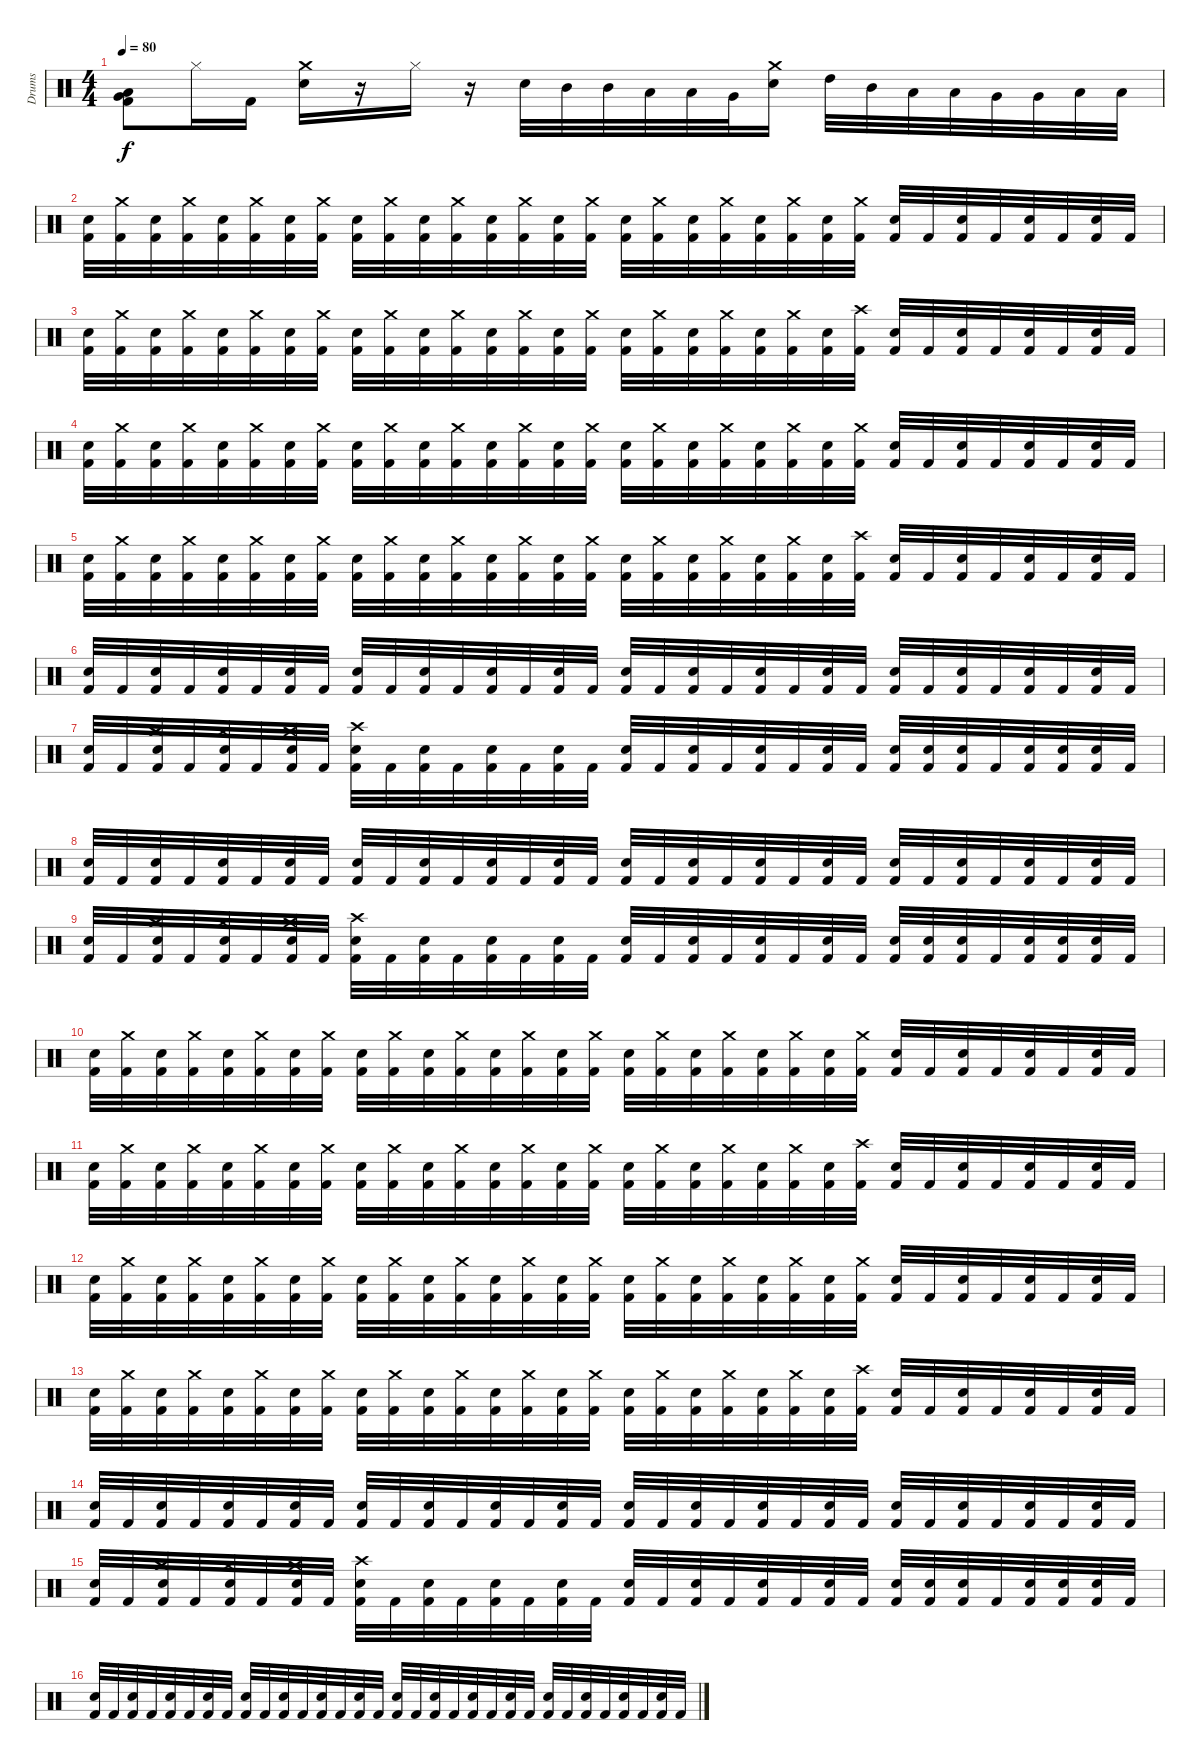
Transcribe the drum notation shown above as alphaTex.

\track ("Drums" "Drums") {instrument percussion}
\staff {score}
\articulation defaults
\ts (4 4)
\tempo 80
\clef neutral
\ks c
("Kick (hit) 2" "Low Floor Tom (hit)" "Very Low Tom (hit)").8{dy f} "Hi-Hat (closed)".16 "Kick (hit) 2".16 ("Crash medium (hit)" "Snare (hit) 2").16 r.16 "Hi-Hat (closed)".16 r.16 "Snare (hit) 2".32 "Mid Tom (hit)".32 "Mid Tom (hit)".32 "Low Tom (hit)".32 "Low Tom (hit)".32 "Very Low Tom (hit)".32 ("Crash medium (hit)" "Snare (hit) 2").16 "High Tom (hit)".32 "Mid Tom (hit)".32 "Low Tom (hit)".32 "Low Tom (hit)".32 "Very Low Tom (hit)".32 "Very Low Tom (hit)".32 "Low Floor Tom (hit)".32 "Low Floor Tom (hit)".32 |
("Kick (hit) 2" "Snare (hit) 2").32 ("Kick (hit) 2" "Crash medium (hit)").32 ("Kick (hit) 2" "Snare (hit) 2").32 ("Kick (hit) 2" "Crash medium (hit)").32 ("Kick (hit) 2" "Snare (hit) 2").32 ("Kick (hit) 2" "Crash medium (hit)").32 ("Kick (hit) 2" "Snare (hit) 2").32 ("Kick (hit) 2" "Crash medium (hit)").32 ("Kick (hit) 2" "Snare (hit) 2").32 ("Kick (hit) 2" "Crash medium (hit)").32 ("Kick (hit) 2" "Snare (hit) 2").32 ("Kick (hit) 2" "Crash medium (hit)").32 ("Kick (hit) 2" "Snare (hit) 2").32 ("Kick (hit) 2" "Crash medium (hit)").32 ("Kick (hit) 2" "Snare (hit) 2").32 ("Kick (hit) 2" "Crash medium (hit)").32 ("Kick (hit) 2" "Snare (hit) 2").32 ("Kick (hit) 2" "Crash medium (hit)").32 ("Kick (hit) 2" "Snare (hit) 2").32 ("Kick (hit) 2" "Crash medium (hit)").32 ("Kick (hit) 2" "Snare (hit) 2").32 ("Kick (hit) 2" "Crash medium (hit)").32 ("Kick (hit) 2" "Snare (hit) 2").32 ("Kick (hit) 2" "Crash medium (hit)").32 ("Kick (hit) 2" "Snare (hit) 2").32 "Kick (hit) 2".32 ("Kick (hit) 2" "Snare (hit) 2").32 "Kick (hit) 2".32 ("Kick (hit) 2" "Snare (hit) 2").32 "Kick (hit) 2".32 ("Kick (hit) 2" "Snare (hit) 2").32 "Kick (hit) 2".32 |
("Kick (hit) 2" "Snare (hit) 2").32 ("Kick (hit) 2" "Crash medium (hit)").32 ("Kick (hit) 2" "Snare (hit) 2").32 ("Kick (hit) 2" "Crash medium (hit)").32 ("Kick (hit) 2" "Snare (hit) 2").32 ("Kick (hit) 2" "Crash medium (hit)").32 ("Kick (hit) 2" "Snare (hit) 2").32 ("Kick (hit) 2" "Crash medium (hit)").32 ("Kick (hit) 2" "Snare (hit) 2").32 ("Kick (hit) 2" "Crash medium (hit)").32 ("Kick (hit) 2" "Snare (hit) 2").32 ("Kick (hit) 2" "Crash medium (hit)").32 ("Kick (hit) 2" "Snare (hit) 2").32 ("Kick (hit) 2" "Crash medium (hit)").32 ("Kick (hit) 2" "Snare (hit) 2").32 ("Kick (hit) 2" "Crash medium (hit)").32 ("Kick (hit) 2" "Snare (hit) 2").32 ("Kick (hit) 2" "Crash medium (hit)").32 ("Kick (hit) 2" "Snare (hit) 2").32 ("Kick (hit) 2" "Crash medium (hit)").32 ("Kick (hit) 2" "Snare (hit) 2").32 ("Kick (hit) 2" "Crash medium (hit)").32 ("Kick (hit) 2" "Snare (hit) 2").32 ("Kick (hit) 2" "Crash high (hit)").32 ("Kick (hit) 2" "Snare (hit) 2").32 "Kick (hit) 2".32 ("Kick (hit) 2" "Snare (hit) 2").32 "Kick (hit) 2".32 ("Kick (hit) 2" "Snare (hit) 2").32 "Kick (hit) 2".32 ("Kick (hit) 2" "Snare (hit) 2").32 "Kick (hit) 2".32 |
("Kick (hit) 2" "Snare (hit) 2").32 ("Kick (hit) 2" "Crash medium (hit)").32 ("Kick (hit) 2" "Snare (hit) 2").32 ("Kick (hit) 2" "Crash medium (hit)").32 ("Kick (hit) 2" "Snare (hit) 2").32 ("Kick (hit) 2" "Crash medium (hit)").32 ("Kick (hit) 2" "Snare (hit) 2").32 ("Kick (hit) 2" "Crash medium (hit)").32 ("Kick (hit) 2" "Snare (hit) 2").32 ("Kick (hit) 2" "Crash medium (hit)").32 ("Kick (hit) 2" "Snare (hit) 2").32 ("Kick (hit) 2" "Crash medium (hit)").32 ("Kick (hit) 2" "Snare (hit) 2").32 ("Kick (hit) 2" "Crash medium (hit)").32 ("Kick (hit) 2" "Snare (hit) 2").32 ("Kick (hit) 2" "Crash medium (hit)").32 ("Kick (hit) 2" "Snare (hit) 2").32 ("Kick (hit) 2" "Crash medium (hit)").32 ("Kick (hit) 2" "Snare (hit) 2").32 ("Kick (hit) 2" "Crash medium (hit)").32 ("Kick (hit) 2" "Snare (hit) 2").32 ("Kick (hit) 2" "Crash medium (hit)").32 ("Kick (hit) 2" "Snare (hit) 2").32 ("Kick (hit) 2" "Crash medium (hit)").32 ("Kick (hit) 2" "Snare (hit) 2").32 "Kick (hit) 2".32 ("Kick (hit) 2" "Snare (hit) 2").32 "Kick (hit) 2".32 ("Kick (hit) 2" "Snare (hit) 2").32 "Kick (hit) 2".32 ("Kick (hit) 2" "Snare (hit) 2").32 "Kick (hit) 2".32 |
("Kick (hit) 2" "Snare (hit) 2").32 ("Kick (hit) 2" "Crash medium (hit)").32 ("Kick (hit) 2" "Snare (hit) 2").32 ("Kick (hit) 2" "Crash medium (hit)").32 ("Kick (hit) 2" "Snare (hit) 2").32 ("Kick (hit) 2" "Crash medium (hit)").32 ("Kick (hit) 2" "Snare (hit) 2").32 ("Kick (hit) 2" "Crash medium (hit)").32 ("Kick (hit) 2" "Snare (hit) 2").32 ("Kick (hit) 2" "Crash medium (hit)").32 ("Kick (hit) 2" "Snare (hit) 2").32 ("Kick (hit) 2" "Crash medium (hit)").32 ("Kick (hit) 2" "Snare (hit) 2").32 ("Kick (hit) 2" "Crash medium (hit)").32 ("Kick (hit) 2" "Snare (hit) 2").32 ("Kick (hit) 2" "Crash medium (hit)").32 ("Kick (hit) 2" "Snare (hit) 2").32 ("Kick (hit) 2" "Crash medium (hit)").32 ("Kick (hit) 2" "Snare (hit) 2").32 ("Kick (hit) 2" "Crash medium (hit)").32 ("Kick (hit) 2" "Snare (hit) 2").32 ("Kick (hit) 2" "Crash medium (hit)").32 ("Kick (hit) 2" "Snare (hit) 2").32 ("Kick (hit) 2" "Crash high (hit)").32 ("Kick (hit) 2" "Snare (hit) 2").32 "Kick (hit) 2".32 ("Kick (hit) 2" "Snare (hit) 2").32 "Kick (hit) 2".32 ("Kick (hit) 2" "Snare (hit) 2").32 "Kick (hit) 2".32 ("Kick (hit) 2" "Snare (hit) 2").32 "Kick (hit) 2".32 |
("Kick (hit) 2" "Snare (hit) 2").32 "Kick (hit) 2".32 ("Kick (hit) 2" "Snare (hit) 2").32 "Kick (hit) 2".32 ("Kick (hit) 2" "Snare (hit) 2").32 "Kick (hit) 2".32 ("Kick (hit) 2" "Snare (hit) 2").32 "Kick (hit) 2".32 ("Kick (hit) 2" "Snare (hit) 2").32 "Kick (hit) 2".32 ("Kick (hit) 2" "Snare (hit) 2").32 "Kick (hit) 2".32 ("Kick (hit) 2" "Snare (hit) 2").32 "Kick (hit) 2".32 ("Kick (hit) 2" "Snare (hit) 2").32 "Kick (hit) 2".32 ("Kick (hit) 2" "Snare (hit) 2").32 "Kick (hit) 2".32 ("Kick (hit) 2" "Snare (hit) 2").32 "Kick (hit) 2".32 ("Kick (hit) 2" "Snare (hit) 2").32 "Kick (hit) 2".32 ("Kick (hit) 2" "Snare (hit) 2").32 "Kick (hit) 2".32 ("Kick (hit) 2" "Snare (hit) 2").32 "Kick (hit) 2".32 ("Kick (hit) 2" "Snare (hit) 2").32 "Kick (hit) 2".32 ("Kick (hit) 2" "Snare (hit) 2").32 "Kick (hit) 2".32 ("Kick (hit) 2" "Snare (hit) 2").32 "Kick (hit) 2".32 |
("Kick (hit) 2" "Snare (hit) 2").32 "Kick (hit) 2".32 ("Kick (hit) 2" "Snare (hit) 2" "Crash medium (hit)").32 "Kick (hit) 2".32 ("Kick (hit) 2" "Snare (hit) 2" "Crash medium (hit)").32 "Kick (hit) 2".32 ("Kick (hit) 2" "Snare (hit) 2" "Crash medium (hit)").32 "Kick (hit) 2".32 ("Kick (hit) 2" "Snare (hit) 2" "Crash high (hit)").32 "Kick (hit) 2".32 ("Kick (hit) 2" "Snare (hit) 2").32 "Kick (hit) 2".32 ("Kick (hit) 2" "Snare (hit) 2").32 "Kick (hit) 2".32 ("Kick (hit) 2" "Snare (hit) 2").32 "Kick (hit) 2".32 ("Kick (hit) 2" "Snare (hit) 2").32 "Kick (hit) 2".32 ("Kick (hit) 2" "Snare (hit) 2").32 "Kick (hit) 2".32 ("Kick (hit) 2" "Snare (hit) 2").32 "Kick (hit) 2".32 ("Kick (hit) 2" "Snare (hit) 2").32 "Kick (hit) 2".32 ("Kick (hit) 2" "Snare (hit) 2").32 ("Kick (hit) 2" "Snare (hit) 2").32 ("Kick (hit) 2" "Snare (hit) 2").32 "Kick (hit) 2".32 ("Kick (hit) 2" "Snare (hit) 2").32 ("Kick (hit) 2" "Snare (hit) 2").32 ("Kick (hit) 2" "Snare (hit) 2").32 "Kick (hit) 2".32 |
("Kick (hit) 2" "Snare (hit) 2").32 "Kick (hit) 2".32 ("Kick (hit) 2" "Snare (hit) 2").32 "Kick (hit) 2".32 ("Kick (hit) 2" "Snare (hit) 2").32 "Kick (hit) 2".32 ("Kick (hit) 2" "Snare (hit) 2").32 "Kick (hit) 2".32 ("Kick (hit) 2" "Snare (hit) 2").32 "Kick (hit) 2".32 ("Kick (hit) 2" "Snare (hit) 2").32 "Kick (hit) 2".32 ("Kick (hit) 2" "Snare (hit) 2").32 "Kick (hit) 2".32 ("Kick (hit) 2" "Snare (hit) 2").32 "Kick (hit) 2".32 ("Kick (hit) 2" "Snare (hit) 2").32 "Kick (hit) 2".32 ("Kick (hit) 2" "Snare (hit) 2").32 "Kick (hit) 2".32 ("Kick (hit) 2" "Snare (hit) 2").32 "Kick (hit) 2".32 ("Kick (hit) 2" "Snare (hit) 2").32 "Kick (hit) 2".32 ("Kick (hit) 2" "Snare (hit) 2").32 "Kick (hit) 2".32 ("Kick (hit) 2" "Snare (hit) 2").32 "Kick (hit) 2".32 ("Kick (hit) 2" "Snare (hit) 2").32 "Kick (hit) 2".32 ("Kick (hit) 2" "Snare (hit) 2").32 "Kick (hit) 2".32 |
("Kick (hit) 2" "Snare (hit) 2").32 "Kick (hit) 2".32 ("Kick (hit) 2" "Snare (hit) 2" "Crash medium (hit)").32 "Kick (hit) 2".32 ("Kick (hit) 2" "Snare (hit) 2" "Crash medium (hit)").32 "Kick (hit) 2".32 ("Kick (hit) 2" "Snare (hit) 2" "Crash medium (hit)").32 "Kick (hit) 2".32 ("Kick (hit) 2" "Snare (hit) 2" "Crash high (hit)").32 "Kick (hit) 2".32 ("Kick (hit) 2" "Snare (hit) 2").32 "Kick (hit) 2".32 ("Kick (hit) 2" "Snare (hit) 2").32 "Kick (hit) 2".32 ("Kick (hit) 2" "Snare (hit) 2").32 "Kick (hit) 2".32 ("Kick (hit) 2" "Snare (hit) 2").32 "Kick (hit) 2".32 ("Kick (hit) 2" "Snare (hit) 2").32 "Kick (hit) 2".32 ("Kick (hit) 2" "Snare (hit) 2").32 "Kick (hit) 2".32 ("Kick (hit) 2" "Snare (hit) 2").32 "Kick (hit) 2".32 ("Kick (hit) 2" "Snare (hit) 2").32 ("Kick (hit) 2" "Snare (hit) 2").32 ("Kick (hit) 2" "Snare (hit) 2").32 "Kick (hit) 2".32 ("Kick (hit) 2" "Snare (hit) 2").32 ("Kick (hit) 2" "Snare (hit) 2").32 ("Kick (hit) 2" "Snare (hit) 2").32 "Kick (hit) 2".32 |
("Kick (hit) 2" "Snare (hit) 2").32 ("Kick (hit) 2" "Crash medium (hit)").32 ("Kick (hit) 2" "Snare (hit) 2").32 ("Kick (hit) 2" "Crash medium (hit)").32 ("Kick (hit) 2" "Snare (hit) 2").32 ("Kick (hit) 2" "Crash medium (hit)").32 ("Kick (hit) 2" "Snare (hit) 2").32 ("Kick (hit) 2" "Crash medium (hit)").32 ("Kick (hit) 2" "Snare (hit) 2").32 ("Kick (hit) 2" "Crash medium (hit)").32 ("Kick (hit) 2" "Snare (hit) 2").32 ("Kick (hit) 2" "Crash medium (hit)").32 ("Kick (hit) 2" "Snare (hit) 2").32 ("Kick (hit) 2" "Crash medium (hit)").32 ("Kick (hit) 2" "Snare (hit) 2").32 ("Kick (hit) 2" "Crash medium (hit)").32 ("Kick (hit) 2" "Snare (hit) 2").32 ("Kick (hit) 2" "Crash medium (hit)").32 ("Kick (hit) 2" "Snare (hit) 2").32 ("Kick (hit) 2" "Crash medium (hit)").32 ("Kick (hit) 2" "Snare (hit) 2").32 ("Kick (hit) 2" "Crash medium (hit)").32 ("Kick (hit) 2" "Snare (hit) 2").32 ("Kick (hit) 2" "Crash medium (hit)").32 ("Kick (hit) 2" "Snare (hit) 2").32 "Kick (hit) 2".32 ("Kick (hit) 2" "Snare (hit) 2").32 "Kick (hit) 2".32 ("Kick (hit) 2" "Snare (hit) 2").32 "Kick (hit) 2".32 ("Kick (hit) 2" "Snare (hit) 2").32 "Kick (hit) 2".32 |
("Kick (hit) 2" "Snare (hit) 2").32 ("Kick (hit) 2" "Crash medium (hit)").32 ("Kick (hit) 2" "Snare (hit) 2").32 ("Kick (hit) 2" "Crash medium (hit)").32 ("Kick (hit) 2" "Snare (hit) 2").32 ("Kick (hit) 2" "Crash medium (hit)").32 ("Kick (hit) 2" "Snare (hit) 2").32 ("Kick (hit) 2" "Crash medium (hit)").32 ("Kick (hit) 2" "Snare (hit) 2").32 ("Kick (hit) 2" "Crash medium (hit)").32 ("Kick (hit) 2" "Snare (hit) 2").32 ("Kick (hit) 2" "Crash medium (hit)").32 ("Kick (hit) 2" "Snare (hit) 2").32 ("Kick (hit) 2" "Crash medium (hit)").32 ("Kick (hit) 2" "Snare (hit) 2").32 ("Kick (hit) 2" "Crash medium (hit)").32 ("Kick (hit) 2" "Snare (hit) 2").32 ("Kick (hit) 2" "Crash medium (hit)").32 ("Kick (hit) 2" "Snare (hit) 2").32 ("Kick (hit) 2" "Crash medium (hit)").32 ("Kick (hit) 2" "Snare (hit) 2").32 ("Kick (hit) 2" "Crash medium (hit)").32 ("Kick (hit) 2" "Snare (hit) 2").32 ("Kick (hit) 2" "Crash high (hit)").32 ("Kick (hit) 2" "Snare (hit) 2").32 "Kick (hit) 2".32 ("Kick (hit) 2" "Snare (hit) 2").32 "Kick (hit) 2".32 ("Kick (hit) 2" "Snare (hit) 2").32 "Kick (hit) 2".32 ("Kick (hit) 2" "Snare (hit) 2").32 "Kick (hit) 2".32 |
("Kick (hit) 2" "Snare (hit) 2").32 ("Kick (hit) 2" "Crash medium (hit)").32 ("Kick (hit) 2" "Snare (hit) 2").32 ("Kick (hit) 2" "Crash medium (hit)").32 ("Kick (hit) 2" "Snare (hit) 2").32 ("Kick (hit) 2" "Crash medium (hit)").32 ("Kick (hit) 2" "Snare (hit) 2").32 ("Kick (hit) 2" "Crash medium (hit)").32 ("Kick (hit) 2" "Snare (hit) 2").32 ("Kick (hit) 2" "Crash medium (hit)").32 ("Kick (hit) 2" "Snare (hit) 2").32 ("Kick (hit) 2" "Crash medium (hit)").32 ("Kick (hit) 2" "Snare (hit) 2").32 ("Kick (hit) 2" "Crash medium (hit)").32 ("Kick (hit) 2" "Snare (hit) 2").32 ("Kick (hit) 2" "Crash medium (hit)").32 ("Kick (hit) 2" "Snare (hit) 2").32 ("Kick (hit) 2" "Crash medium (hit)").32 ("Kick (hit) 2" "Snare (hit) 2").32 ("Kick (hit) 2" "Crash medium (hit)").32 ("Kick (hit) 2" "Snare (hit) 2").32 ("Kick (hit) 2" "Crash medium (hit)").32 ("Kick (hit) 2" "Snare (hit) 2").32 ("Kick (hit) 2" "Crash medium (hit)").32 ("Kick (hit) 2" "Snare (hit) 2").32 "Kick (hit) 2".32 ("Kick (hit) 2" "Snare (hit) 2").32 "Kick (hit) 2".32 ("Kick (hit) 2" "Snare (hit) 2").32 "Kick (hit) 2".32 ("Kick (hit) 2" "Snare (hit) 2").32 "Kick (hit) 2".32 |
("Kick (hit) 2" "Snare (hit) 2").32 ("Kick (hit) 2" "Crash medium (hit)").32 ("Kick (hit) 2" "Snare (hit) 2").32 ("Kick (hit) 2" "Crash medium (hit)").32 ("Kick (hit) 2" "Snare (hit) 2").32 ("Kick (hit) 2" "Crash medium (hit)").32 ("Kick (hit) 2" "Snare (hit) 2").32 ("Kick (hit) 2" "Crash medium (hit)").32 ("Kick (hit) 2" "Snare (hit) 2").32 ("Kick (hit) 2" "Crash medium (hit)").32 ("Kick (hit) 2" "Snare (hit) 2").32 ("Kick (hit) 2" "Crash medium (hit)").32 ("Kick (hit) 2" "Snare (hit) 2").32 ("Kick (hit) 2" "Crash medium (hit)").32 ("Kick (hit) 2" "Snare (hit) 2").32 ("Kick (hit) 2" "Crash medium (hit)").32 ("Kick (hit) 2" "Snare (hit) 2").32 ("Kick (hit) 2" "Crash medium (hit)").32 ("Kick (hit) 2" "Snare (hit) 2").32 ("Kick (hit) 2" "Crash medium (hit)").32 ("Kick (hit) 2" "Snare (hit) 2").32 ("Kick (hit) 2" "Crash medium (hit)").32 ("Kick (hit) 2" "Snare (hit) 2").32 ("Kick (hit) 2" "Crash high (hit)").32 ("Kick (hit) 2" "Snare (hit) 2").32 "Kick (hit) 2".32 ("Kick (hit) 2" "Snare (hit) 2").32 "Kick (hit) 2".32 ("Kick (hit) 2" "Snare (hit) 2").32 "Kick (hit) 2".32 ("Kick (hit) 2" "Snare (hit) 2").32 "Kick (hit) 2".32 |
("Kick (hit) 2" "Snare (hit) 2").32 "Kick (hit) 2".32 ("Kick (hit) 2" "Snare (hit) 2").32 "Kick (hit) 2".32 ("Kick (hit) 2" "Snare (hit) 2").32 "Kick (hit) 2".32 ("Kick (hit) 2" "Snare (hit) 2").32 "Kick (hit) 2".32 ("Kick (hit) 2" "Snare (hit) 2").32 "Kick (hit) 2".32 ("Kick (hit) 2" "Snare (hit) 2").32 "Kick (hit) 2".32 ("Kick (hit) 2" "Snare (hit) 2").32 "Kick (hit) 2".32 ("Kick (hit) 2" "Snare (hit) 2").32 "Kick (hit) 2".32 ("Kick (hit) 2" "Snare (hit) 2").32 "Kick (hit) 2".32 ("Kick (hit) 2" "Snare (hit) 2").32 "Kick (hit) 2".32 ("Kick (hit) 2" "Snare (hit) 2").32 "Kick (hit) 2".32 ("Kick (hit) 2" "Snare (hit) 2").32 "Kick (hit) 2".32 ("Kick (hit) 2" "Snare (hit) 2").32 "Kick (hit) 2".32 ("Kick (hit) 2" "Snare (hit) 2").32 "Kick (hit) 2".32 ("Kick (hit) 2" "Snare (hit) 2").32 "Kick (hit) 2".32 ("Kick (hit) 2" "Snare (hit) 2").32 "Kick (hit) 2".32 |
("Kick (hit) 2" "Snare (hit) 2").32 "Kick (hit) 2".32 ("Kick (hit) 2" "Snare (hit) 2" "Crash medium (hit)").32 "Kick (hit) 2".32 ("Kick (hit) 2" "Snare (hit) 2" "Crash medium (hit)").32 "Kick (hit) 2".32 ("Kick (hit) 2" "Snare (hit) 2" "Crash medium (hit)").32 "Kick (hit) 2".32 ("Kick (hit) 2" "Snare (hit) 2" "Crash high (hit)").32 "Kick (hit) 2".32 ("Kick (hit) 2" "Snare (hit) 2").32 "Kick (hit) 2".32 ("Kick (hit) 2" "Snare (hit) 2").32 "Kick (hit) 2".32 ("Kick (hit) 2" "Snare (hit) 2").32 "Kick (hit) 2".32 ("Kick (hit) 2" "Snare (hit) 2").32 "Kick (hit) 2".32 ("Kick (hit) 2" "Snare (hit) 2").32 "Kick (hit) 2".32 ("Kick (hit) 2" "Snare (hit) 2").32 "Kick (hit) 2".32 ("Kick (hit) 2" "Snare (hit) 2").32 "Kick (hit) 2".32 ("Kick (hit) 2" "Snare (hit) 2").32 ("Kick (hit) 2" "Snare (hit) 2").32 ("Kick (hit) 2" "Snare (hit) 2").32 "Kick (hit) 2".32 ("Kick (hit) 2" "Snare (hit) 2").32 ("Kick (hit) 2" "Snare (hit) 2").32 ("Kick (hit) 2" "Snare (hit) 2").32 "Kick (hit) 2".32 |
("Kick (hit) 2" "Snare (hit) 2").32 "Kick (hit) 2".32 ("Kick (hit) 2" "Snare (hit) 2").32 "Kick (hit) 2".32 ("Kick (hit) 2" "Snare (hit) 2").32 "Kick (hit) 2".32 ("Kick (hit) 2" "Snare (hit) 2").32 "Kick (hit) 2".32 ("Kick (hit) 2" "Snare (hit) 2").32 "Kick (hit) 2".32 ("Kick (hit) 2" "Snare (hit) 2").32 "Kick (hit) 2".32 ("Kick (hit) 2" "Snare (hit) 2").32 "Kick (hit) 2".32 ("Kick (hit) 2" "Snare (hit) 2").32 "Kick (hit) 2".32 ("Kick (hit) 2" "Snare (hit) 2").32 "Kick (hit) 2".32 ("Kick (hit) 2" "Snare (hit) 2").32 "Kick (hit) 2".32 ("Kick (hit) 2" "Snare (hit) 2").32 "Kick (hit) 2".32 ("Kick (hit) 2" "Snare (hit) 2").32 "Kick (hit) 2".32 ("Kick (hit) 2" "Snare (hit) 2").32 "Kick (hit) 2".32 ("Kick (hit) 2" "Snare (hit) 2").32 "Kick (hit) 2".32 ("Kick (hit) 2" "Snare (hit) 2").32 "Kick (hit) 2".32 ("Kick (hit) 2" "Snare (hit) 2").32 "Kick (hit) 2".32
